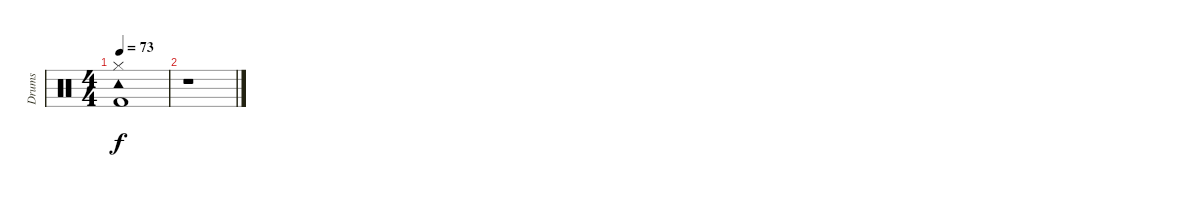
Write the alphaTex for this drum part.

\track ("Drums" "Drums") {instrument percussion}
\staff {score}
\articulation defaults
\ts (4 4)
\tempo 73
\clef neutral
\ks c
("Hi-Hat (closed)" "Tambourine (hit)" "Kick (hit) 2").1{dy f} |
r.1
